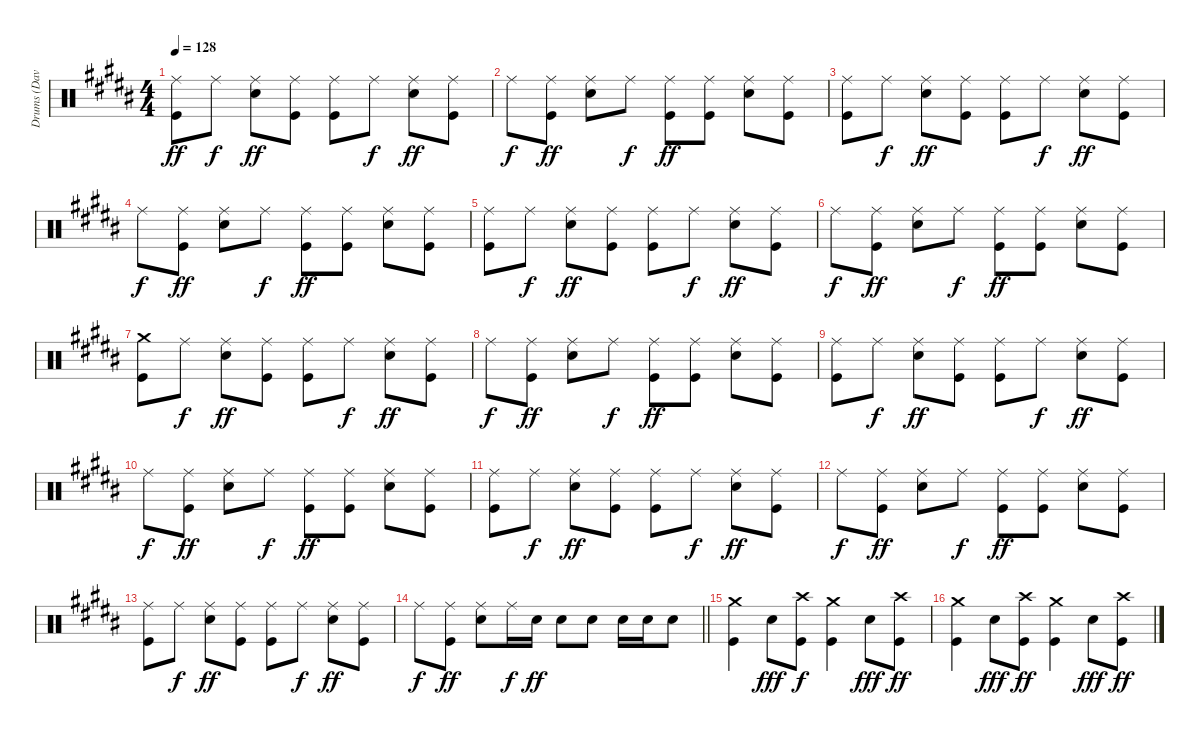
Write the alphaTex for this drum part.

\track ("Drums (Dave)" "Drums (Dav") {instrument percussion}
\staff {score}
\articulation defaults
\ts (4 4)
\tempo 128
\clef neutral
\ks b
("Ride (middle)" "Kick (hit)").8{dy ff} "Ride (middle)".8{dy f} ("Ride (middle)" "Electric Snare (hit)").8{dy ff} ("Ride (middle)" "Kick (hit)").8 ("Ride (middle)" "Kick (hit)").8 "Ride (middle)".8{dy f} ("Ride (middle)" "Electric Snare (hit)").8{dy ff} ("Ride (middle)" "Kick (hit)").8 |
"Ride (middle)".8{dy f} ("Ride (middle)" "Kick (hit)").8{dy ff} ("Ride (middle)" "Electric Snare (hit)").8 "Ride (middle)".8{dy f} ("Ride (middle)" "Kick (hit)").8{dy ff} ("Ride (middle)" "Kick (hit)").8 ("Ride (middle)" "Electric Snare (hit)").8 ("Ride (middle)" "Kick (hit)").8 |
("Ride (middle)" "Kick (hit)").8 "Ride (middle)".8{dy f} ("Ride (middle)" "Electric Snare (hit)").8{dy ff} ("Ride (middle)" "Kick (hit)").8 ("Ride (middle)" "Kick (hit)").8 "Ride (middle)".8{dy f} ("Ride (middle)" "Electric Snare (hit)").8{dy ff} ("Ride (middle)" "Kick (hit)").8 |
"Ride (middle)".8{dy f} ("Ride (middle)" "Kick (hit)").8{dy ff} ("Ride (middle)" "Electric Snare (hit)").8 "Ride (middle)".8{dy f} ("Ride (middle)" "Kick (hit)").8{dy ff} ("Ride (middle)" "Kick (hit)").8 ("Ride (middle)" "Electric Snare (hit)").8 ("Ride (middle)" "Kick (hit)").8 |
("Ride (middle)" "Kick (hit)").8 "Ride (middle)".8{dy f} ("Ride (middle)" "Electric Snare (hit)").8{dy ff} ("Ride (middle)" "Kick (hit)").8 ("Ride (middle)" "Kick (hit)").8 "Ride (middle)".8{dy f} ("Ride (middle)" "Electric Snare (hit)").8{dy ff} ("Ride (middle)" "Kick (hit)").8 |
"Ride (middle)".8{dy f} ("Ride (middle)" "Kick (hit)").8{dy ff} ("Ride (middle)" "Electric Snare (hit)").8 "Ride (middle)".8{dy f} ("Ride (middle)" "Kick (hit)").8{dy ff} ("Ride (middle)" "Kick (hit)").8 ("Ride (middle)" "Electric Snare (hit)").8 ("Ride (middle)" "Kick (hit)").8 |
("Crash medium (hit)" "Kick (hit)").8 "Ride (middle)".8{dy f} ("Ride (middle)" "Electric Snare (hit)").8{dy ff} ("Ride (middle)" "Kick (hit)").8 ("Ride (middle)" "Kick (hit)").8 "Ride (middle)".8{dy f} ("Ride (middle)" "Electric Snare (hit)").8{dy ff} ("Ride (middle)" "Kick (hit)").8 |
"Ride (middle)".8{dy f} ("Ride (middle)" "Kick (hit)").8{dy ff} ("Ride (middle)" "Electric Snare (hit)").8 "Ride (middle)".8{dy f} ("Ride (middle)" "Kick (hit)").8{dy ff} ("Ride (middle)" "Kick (hit)").8 ("Ride (middle)" "Electric Snare (hit)").8 ("Ride (middle)" "Kick (hit)").8 |
("Ride (middle)" "Kick (hit)").8 "Ride (middle)".8{dy f} ("Ride (middle)" "Electric Snare (hit)").8{dy ff} ("Ride (middle)" "Kick (hit)").8 ("Ride (middle)" "Kick (hit)").8 "Ride (middle)".8{dy f} ("Ride (middle)" "Electric Snare (hit)").8{dy ff} ("Ride (middle)" "Kick (hit)").8 |
"Ride (middle)".8{dy f} ("Ride (middle)" "Kick (hit)").8{dy ff} ("Ride (middle)" "Electric Snare (hit)").8 "Ride (middle)".8{dy f} ("Ride (middle)" "Kick (hit)").8{dy ff} ("Ride (middle)" "Kick (hit)").8 ("Ride (middle)" "Electric Snare (hit)").8 ("Ride (middle)" "Kick (hit)").8 |
("Ride (middle)" "Kick (hit)").8 "Ride (middle)".8{dy f} ("Ride (middle)" "Electric Snare (hit)").8{dy ff} ("Ride (middle)" "Kick (hit)").8 ("Ride (middle)" "Kick (hit)").8 "Ride (middle)".8{dy f} ("Ride (middle)" "Electric Snare (hit)").8{dy ff} ("Ride (middle)" "Kick (hit)").8 |
"Ride (middle)".8{dy f} ("Ride (middle)" "Kick (hit)").8{dy ff} ("Ride (middle)" "Electric Snare (hit)").8 "Ride (middle)".8{dy f} ("Ride (middle)" "Kick (hit)").8{dy ff} ("Ride (middle)" "Kick (hit)").8 ("Ride (middle)" "Electric Snare (hit)").8 ("Ride (middle)" "Kick (hit)").8 |
("Ride (middle)" "Kick (hit)").8 "Ride (middle)".8{dy f} ("Ride (middle)" "Electric Snare (hit)").8{dy ff} ("Ride (middle)" "Kick (hit)").8 ("Ride (middle)" "Kick (hit)").8 "Ride (middle)".8{dy f} ("Ride (middle)" "Electric Snare (hit)").8{dy ff} ("Ride (middle)" "Kick (hit)").8 |
\barLineRight lightlight "Ride (middle)".8{dy f}
("Ride (middle)" "Kick (hit)").8{dy ff} ("Ride (middle)" "Electric Snare (hit)").8 "Ride (middle)".16{dy f} "Electric Snare (hit)".16{dy ff} "Electric Snare (hit)".8 "Electric Snare (hit)".8 "Electric Snare (hit)".16 "Electric Snare (hit)".16 "Electric Snare (hit)".8 |
\section ("" "")
("Crash medium (hit)" "Kick (hit)").4 "Electric Snare (hit)".8{dy fff} ("Crash high (hit)" "Kick (hit)").8{dy f} ("Crash medium (hit)" "Kick (hit)").4 "Electric Snare (hit)".8{dy fff} ("Crash high (hit)" "Kick (hit)").8{dy ff} |
("Crash medium (hit)" "Kick (hit)").4 "Electric Snare (hit)".8{dy fff} ("Crash high (hit)" "Kick (hit)").8{dy ff} ("Crash medium (hit)" "Kick (hit)").4 "Electric Snare (hit)".8{dy fff} ("Crash high (hit)" "Kick (hit)").8{dy ff}
